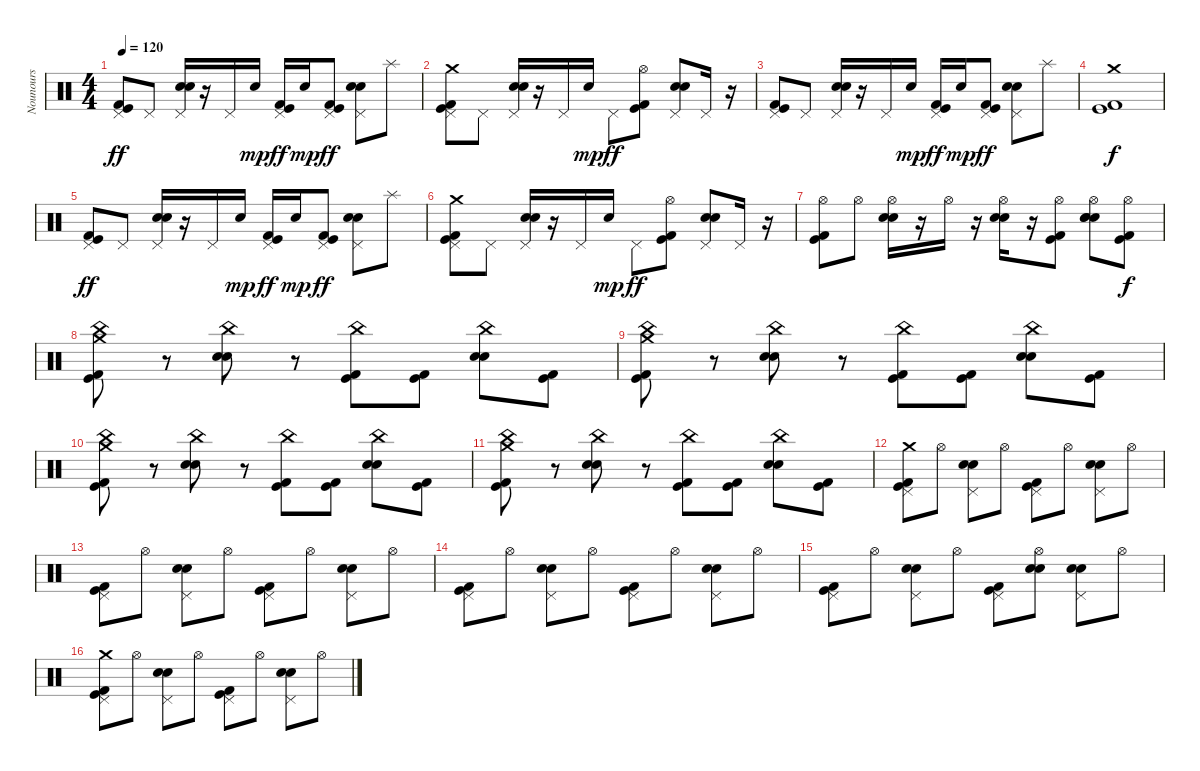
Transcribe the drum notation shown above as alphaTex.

\track ("Nounours" "Nounours") {instrument percussion}
\staff {score}
\articulation defaults
\ts (4 4)
\tempo 120
\clef neutral
\ks c
("Pedal Hi-Hat (hit)" "Kick (hit)" "Kick (hit) 2").8{dy ff} "Pedal Hi-Hat (hit)".8 ("Pedal Hi-Hat (hit)" "Electric Snare (hit)" "Electric Snare (hit)").16 r.16 "Pedal Hi-Hat (hit)".16 "Electric Snare (hit)".16{dy mp} ("Pedal Hi-Hat (hit)" "Kick (hit)" "Kick (hit) 2").16{dy ff} "Electric Snare (hit)".16{dy mp} ("Pedal Hi-Hat (hit)" "Kick (hit) 2" "Kick (hit)").8{dy ff} ("Pedal Hi-Hat (hit)" "Electric Snare (hit)" "Electric Snare (hit)").8 "Splash (hit)".8 |
("Crash medium (hit)" "Pedal Hi-Hat (hit)" "Kick (hit)" "Kick (hit) 2").8 "Pedal Hi-Hat (hit)".8 ("Pedal Hi-Hat (hit)" "Electric Snare (hit)" "Electric Snare (hit)").16 r.16 "Pedal Hi-Hat (hit)".16 "Electric Snare (hit)".16{dy mp} "Pedal Hi-Hat (hit)".8{dy ff} ("Hi-Hat (open)" "Kick (hit) 2" "Kick (hit)").8 ("Pedal Hi-Hat (hit)" "Electric Snare (hit)" "Electric Snare (hit)").8 "Pedal Hi-Hat (hit)".16 r.16 |
("Pedal Hi-Hat (hit)" "Kick (hit)" "Kick (hit) 2").8 "Pedal Hi-Hat (hit)".8 ("Pedal Hi-Hat (hit)" "Electric Snare (hit)" "Electric Snare (hit)").16 r.16 "Pedal Hi-Hat (hit)".16 "Electric Snare (hit)".16{dy mp} ("Pedal Hi-Hat (hit)" "Kick (hit)" "Kick (hit) 2").16{dy ff} "Electric Snare (hit)".16{dy mp} ("Pedal Hi-Hat (hit)" "Kick (hit) 2" "Kick (hit)").8{dy ff} ("Pedal Hi-Hat (hit)" "Electric Snare (hit)" "Electric Snare (hit)").8 "Splash (hit)".8 |
("Crash medium (hit)" "Kick (hit) 2" "Kick (hit)").1{dy f} |
("Pedal Hi-Hat (hit)" "Kick (hit)" "Kick (hit) 2").8{dy ff} "Pedal Hi-Hat (hit)".8 ("Pedal Hi-Hat (hit)" "Electric Snare (hit)" "Electric Snare (hit)").16 r.16 "Pedal Hi-Hat (hit)".16 "Electric Snare (hit)".16{dy mp} ("Pedal Hi-Hat (hit)" "Kick (hit)" "Kick (hit) 2").16{dy ff} "Electric Snare (hit)".16{dy mp} ("Pedal Hi-Hat (hit)" "Kick (hit) 2" "Kick (hit)").8{dy ff} ("Pedal Hi-Hat (hit)" "Electric Snare (hit)" "Electric Snare (hit)").8 "Splash (hit)".8 |
("Crash medium (hit)" "Pedal Hi-Hat (hit)" "Kick (hit)" "Kick (hit) 2").8 "Pedal Hi-Hat (hit)".8 ("Pedal Hi-Hat (hit)" "Electric Snare (hit)" "Electric Snare (hit)").16 r.16 "Pedal Hi-Hat (hit)".16 "Electric Snare (hit)".16{dy mp} "Pedal Hi-Hat (hit)".8{dy ff} ("Hi-Hat (open)" "Kick (hit) 2" "Kick (hit)").8 ("Pedal Hi-Hat (hit)" "Electric Snare (hit)" "Electric Snare (hit)").8 "Pedal Hi-Hat (hit)".16 r.16 |
("Hi-Hat (open)" "Kick (hit)" "Kick (hit) 2").8 "Hi-Hat (open)".8 ("Hi-Hat (open)" "Electric Snare (hit)" "Electric Snare (hit)").16 r.16 "Hi-Hat (open)".16 r.16 ("Hi-Hat (open)" "Electric Snare (hit)" "Electric Snare (hit)").16 r.16 ("Hi-Hat (open)" "Kick (hit) 2" "Kick (hit)").8 ("Hi-Hat (open)" "Electric Snare (hit)" "Electric Snare (hit)" "Electric Snare (hit)").8 ("Hi-Hat (open)" "Kick (hit) 2" "Kick (hit)").8{dy f} |
("China (hit)" "Crash medium (hit)" "Kick (hit) 2" "Kick (hit)").8 r.8 ("China (hit)" "Electric Snare (hit)" "Electric Snare (hit)").8 r.8 ("China (hit)" "Kick (hit)" "Kick (hit) 2").8 ("Kick (hit) 2" "Kick (hit)").8 ("China (hit)" "Electric Snare (hit)" "Electric Snare (hit)").8 ("Kick (hit) 2" "Kick (hit)").8 |
("China (hit)" "Crash medium (hit)" "Kick (hit) 2" "Kick (hit)").8 r.8 ("China (hit)" "Electric Snare (hit)" "Electric Snare (hit)").8 r.8 ("China (hit)" "Kick (hit)" "Kick (hit) 2").8 ("Kick (hit) 2" "Kick (hit)").8 ("China (hit)" "Electric Snare (hit)" "Electric Snare (hit)").8 ("Kick (hit) 2" "Kick (hit)").8 |
("China (hit)" "Crash medium (hit)" "Kick (hit) 2" "Kick (hit)").8 r.8 ("China (hit)" "Electric Snare (hit)" "Electric Snare (hit)").8 r.8 ("China (hit)" "Kick (hit)" "Kick (hit) 2").8 ("Kick (hit) 2" "Kick (hit)").8 ("China (hit)" "Electric Snare (hit)" "Electric Snare (hit)").8 ("Kick (hit) 2" "Kick (hit)").8 |
("China (hit)" "Crash medium (hit)" "Kick (hit) 2" "Kick (hit)").8 r.8 ("China (hit)" "Electric Snare (hit)" "Electric Snare (hit)").8 r.8 ("China (hit)" "Kick (hit)" "Kick (hit) 2").8 ("Kick (hit) 2" "Kick (hit)").8 ("China (hit)" "Electric Snare (hit)" "Electric Snare (hit)").8 ("Kick (hit) 2" "Kick (hit)").8 |
("Pedal Hi-Hat (hit)" "Crash medium (hit)" "Kick (hit) 2" "Kick (hit)").8 "Hi-Hat (open)".8 ("Pedal Hi-Hat (hit)" "Electric Snare (hit)" "Electric Snare (hit)").8 "Hi-Hat (open)".8 ("Pedal Hi-Hat (hit)" "Kick (hit)" "Kick (hit) 2").8 "Hi-Hat (open)".8 ("Pedal Hi-Hat (hit)" "Electric Snare (hit)" "Electric Snare (hit)").8 "Hi-Hat (open)".8 |
("Pedal Hi-Hat (hit)" "Kick (hit) 2" "Kick (hit)").8 "Hi-Hat (open)".8 ("Pedal Hi-Hat (hit)" "Electric Snare (hit)" "Electric Snare (hit)").8 "Hi-Hat (open)".8 ("Pedal Hi-Hat (hit)" "Kick (hit)" "Kick (hit) 2").8 "Hi-Hat (open)".8 ("Pedal Hi-Hat (hit)" "Electric Snare (hit)" "Electric Snare (hit)").8 "Hi-Hat (open)".8 |
("Pedal Hi-Hat (hit)" "Kick (hit) 2" "Kick (hit)").8 "Hi-Hat (open)".8 ("Pedal Hi-Hat (hit)" "Electric Snare (hit)" "Electric Snare (hit)").8 "Hi-Hat (open)".8 ("Pedal Hi-Hat (hit)" "Kick (hit)" "Kick (hit) 2").8 "Hi-Hat (open)".8 ("Pedal Hi-Hat (hit)" "Electric Snare (hit)" "Electric Snare (hit)").8 "Hi-Hat (open)".8 |
("Pedal Hi-Hat (hit)" "Kick (hit) 2" "Kick (hit)").8 "Hi-Hat (open)".8 ("Pedal Hi-Hat (hit)" "Electric Snare (hit)" "Electric Snare (hit)").8 "Hi-Hat (open)".8 ("Pedal Hi-Hat (hit)" "Kick (hit)" "Kick (hit) 2").8 ("Hi-Hat (open)" "Electric Snare (hit)" "Electric Snare (hit)").8 ("Pedal Hi-Hat (hit)" "Electric Snare (hit)" "Electric Snare (hit)").8 "Hi-Hat (open)".8 |
("Pedal Hi-Hat (hit)" "Crash medium (hit)" "Kick (hit) 2" "Kick (hit)").8 "Hi-Hat (open)".8 ("Pedal Hi-Hat (hit)" "Electric Snare (hit)" "Electric Snare (hit)").8 "Hi-Hat (open)".8 ("Pedal Hi-Hat (hit)" "Kick (hit)" "Kick (hit) 2").8 "Hi-Hat (open)".8 ("Pedal Hi-Hat (hit)" "Electric Snare (hit)" "Electric Snare (hit)").8 "Hi-Hat (open)".8
